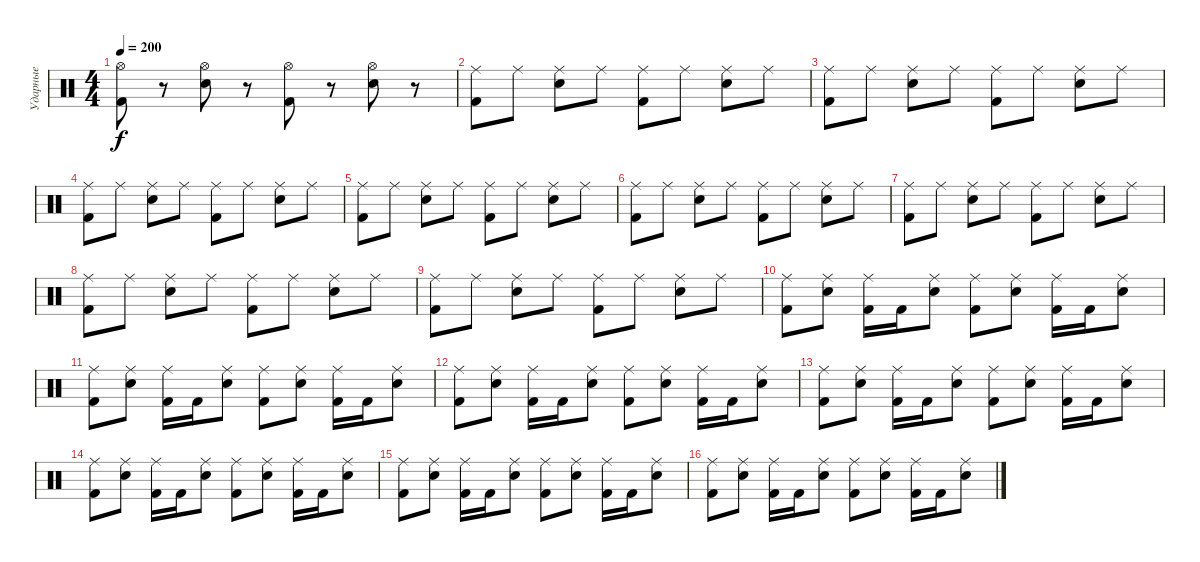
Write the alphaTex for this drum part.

\track ("Ударные" "Ударные") {instrument percussion}
\staff {score}
\articulation defaults
\ts (4 4)
\tempo 200
\clef neutral
\ks c
("Hi-Hat (open)" "Kick (hit) 2").8{dy f} r.8 ("Hi-Hat (open)" "Snare (hit) 2").8 r.8 ("Hi-Hat (open)" "Kick (hit) 2").8 r.8 ("Hi-Hat (open)" "Snare (hit) 2").8 r.8 |
("Ride (middle)" "Kick (hit) 2").8 "Ride (middle)".8 ("Ride (middle)" "Snare (hit) 2").8 "Ride (middle)".8 ("Ride (middle)" "Kick (hit) 2").8 "Ride (middle)".8 ("Ride (middle)" "Snare (hit) 2").8 "Ride (middle)".8 |
("Ride (middle)" "Kick (hit) 2").8 "Ride (middle)".8 ("Ride (middle)" "Snare (hit) 2").8 "Ride (middle)".8 ("Ride (middle)" "Kick (hit) 2").8 "Ride (middle)".8 ("Ride (middle)" "Snare (hit) 2").8 "Ride (middle)".8 |
("Ride (middle)" "Kick (hit) 2").8 "Ride (middle)".8 ("Ride (middle)" "Snare (hit) 2").8 "Ride (middle)".8 ("Ride (middle)" "Kick (hit) 2").8 "Ride (middle)".8 ("Ride (middle)" "Snare (hit) 2").8 "Ride (middle)".8 |
("Ride (middle)" "Kick (hit) 2").8 "Ride (middle)".8 ("Ride (middle)" "Snare (hit) 2").8 "Ride (middle)".8 ("Ride (middle)" "Kick (hit) 2").8 "Ride (middle)".8 ("Ride (middle)" "Snare (hit) 2").8 "Ride (middle)".8 |
("Ride (middle)" "Kick (hit) 2").8 "Ride (middle)".8 ("Ride (middle)" "Snare (hit) 2").8 "Ride (middle)".8 ("Ride (middle)" "Kick (hit) 2").8 "Ride (middle)".8 ("Ride (middle)" "Snare (hit) 2").8 "Ride (middle)".8 |
("Ride (middle)" "Kick (hit) 2").8 "Ride (middle)".8 ("Ride (middle)" "Snare (hit) 2").8 "Ride (middle)".8 ("Ride (middle)" "Kick (hit) 2").8 "Ride (middle)".8 ("Ride (middle)" "Snare (hit) 2").8 "Ride (middle)".8 |
("Ride (middle)" "Kick (hit) 2").8 "Ride (middle)".8 ("Ride (middle)" "Snare (hit) 2").8 "Ride (middle)".8 ("Ride (middle)" "Kick (hit) 2").8 "Ride (middle)".8 ("Ride (middle)" "Snare (hit) 2").8 "Ride (middle)".8 |
("Ride (middle)" "Kick (hit) 2").8 "Ride (middle)".8 ("Ride (middle)" "Snare (hit) 2").8 "Ride (middle)".8 ("Ride (middle)" "Kick (hit) 2").8 "Ride (middle)".8 ("Ride (middle)" "Snare (hit) 2").8 "Ride (middle)".8 |
("Kick (hit) 2" "Ride (middle)").8 ("Electric Snare (hit)" "Ride (middle)").8 ("Kick (hit) 2" "Ride (middle)").16 "Kick (hit) 2".16 ("Electric Snare (hit)" "Ride (middle)").8 ("Kick (hit) 2" "Ride (middle)").8 ("Electric Snare (hit)" "Ride (middle)").8 ("Kick (hit) 2" "Ride (middle)").16 "Kick (hit) 2".16 ("Electric Snare (hit)" "Ride (middle)").8 |
("Kick (hit) 2" "Ride (middle)").8 ("Electric Snare (hit)" "Ride (middle)").8 ("Kick (hit) 2" "Ride (middle)").16 "Kick (hit) 2".16 ("Electric Snare (hit)" "Ride (middle)").8 ("Kick (hit) 2" "Ride (middle)").8 ("Electric Snare (hit)" "Ride (middle)").8 ("Kick (hit) 2" "Ride (middle)").16 "Kick (hit) 2".16 ("Electric Snare (hit)" "Ride (middle)").8 |
("Kick (hit) 2" "Ride (middle)").8 ("Electric Snare (hit)" "Ride (middle)").8 ("Kick (hit) 2" "Ride (middle)").16 "Kick (hit) 2".16 ("Electric Snare (hit)" "Ride (middle)").8 ("Kick (hit) 2" "Ride (middle)").8 ("Electric Snare (hit)" "Ride (middle)").8 ("Kick (hit) 2" "Ride (middle)").16 "Kick (hit) 2".16 ("Electric Snare (hit)" "Ride (middle)").8 |
("Kick (hit) 2" "Ride (middle)").8 ("Electric Snare (hit)" "Ride (middle)").8 ("Kick (hit) 2" "Ride (middle)").16 "Kick (hit) 2".16 ("Electric Snare (hit)" "Ride (middle)").8 ("Kick (hit) 2" "Ride (middle)").8 ("Electric Snare (hit)" "Ride (middle)").8 ("Kick (hit) 2" "Ride (middle)").16 "Kick (hit) 2".16 ("Electric Snare (hit)" "Ride (middle)").8 |
("Kick (hit) 2" "Ride (middle)").8 ("Electric Snare (hit)" "Ride (middle)").8 ("Kick (hit) 2" "Ride (middle)").16 "Kick (hit) 2".16 ("Electric Snare (hit)" "Ride (middle)").8 ("Kick (hit) 2" "Ride (middle)").8 ("Electric Snare (hit)" "Ride (middle)").8 ("Kick (hit) 2" "Ride (middle)").16 "Kick (hit) 2".16 ("Electric Snare (hit)" "Ride (middle)").8 |
("Kick (hit) 2" "Ride (middle)").8 ("Electric Snare (hit)" "Ride (middle)").8 ("Kick (hit) 2" "Ride (middle)").16 "Kick (hit) 2".16 ("Electric Snare (hit)" "Ride (middle)").8 ("Kick (hit) 2" "Ride (middle)").8 ("Electric Snare (hit)" "Ride (middle)").8 ("Kick (hit) 2" "Ride (middle)").16 "Kick (hit) 2".16 ("Electric Snare (hit)" "Ride (middle)").8 |
("Kick (hit) 2" "Ride (middle)").8 ("Electric Snare (hit)" "Ride (middle)").8 ("Kick (hit) 2" "Ride (middle)").16 "Kick (hit) 2".16 ("Electric Snare (hit)" "Ride (middle)").8 ("Kick (hit) 2" "Ride (middle)").8 ("Electric Snare (hit)" "Ride (middle)").8 ("Kick (hit) 2" "Ride (middle)").16 "Kick (hit) 2".16 ("Electric Snare (hit)" "Ride (middle)").8
